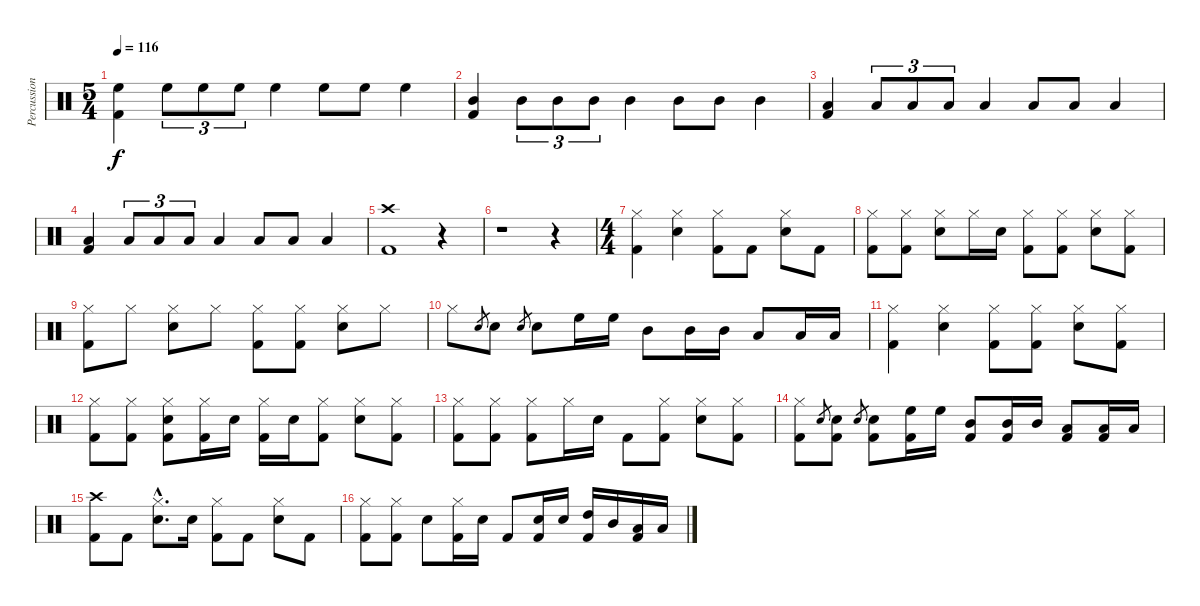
\track ("Percussion" "Percussion") {instrument percussion}
\staff {score}
\articulation defaults
\ts (5 4)
\tempo 116
\clef neutral
\ks c
("Kick (hit) 2" "High Floor Tom (hit)").4{dy f} "High Floor Tom (hit)".8{tu (3 2)} "High Floor Tom (hit)".8{tu (3 2)} "High Floor Tom (hit)".8{tu (3 2)} "High Floor Tom (hit)".4 "High Floor Tom (hit)".8 "High Floor Tom (hit)".8 "High Floor Tom (hit)".4 |
("Kick (hit) 2" "Mid Tom (hit)").4 "Mid Tom (hit)".8{tu (3 2)} "Mid Tom (hit)".8{tu (3 2)} "Mid Tom (hit)".8{tu (3 2)} "Mid Tom (hit)".4 "Mid Tom (hit)".8 "Mid Tom (hit)".8 "Mid Tom (hit)".4 |
("Kick (hit) 2" "Low Tom (hit)").4 "Low Tom (hit)".8{tu (3 2)} "Low Tom (hit)".8{tu (3 2)} "Low Tom (hit)".8{tu (3 2)} "Low Tom (hit)".4 "Low Tom (hit)".8 "Low Tom (hit)".8 "Low Tom (hit)".4 |
("Kick (hit) 2" "Low Floor Tom (hit)").4 "Low Floor Tom (hit)".8{tu (3 2)} "Low Floor Tom (hit)".8{tu (3 2)} "Low Floor Tom (hit)".8{tu (3 2)} "Low Floor Tom (hit)".4 "Low Floor Tom (hit)".8 "Low Floor Tom (hit)".8 "Low Floor Tom (hit)".4 |
("Kick (hit) 2" "Crash high (hit)").1 r.4 |
r.1 r.4 |
\ts (4 4)
("Kick (hit) 2" "Hi-Hat (closed)").4 ("Snare (hit) 2" "Hi-Hat (closed)").4 ("Kick (hit) 2" "Hi-Hat (closed)").8 "Kick (hit) 2".8 ("Snare (hit) 2" "Hi-Hat (closed)").8 "Kick (hit) 2".8 |
("Kick (hit) 2" "Hi-Hat (closed)").8 ("Kick (hit) 2" "Hi-Hat (closed)").8 ("Snare (hit) 2" "Hi-Hat (closed)").8 "Hi-Hat (closed)".16 "Snare (hit) 2".16 ("Kick (hit) 2" "Hi-Hat (closed)").8 ("Kick (hit) 2" "Hi-Hat (closed)").8 ("Snare (hit) 2" "Hi-Hat (closed)").8 ("Kick (hit) 2" "Hi-Hat (closed)").8 |
("Kick (hit) 2" "Hi-Hat (closed)").8 "Hi-Hat (closed)".8 ("Snare (hit) 2" "Hi-Hat (closed)").8 "Hi-Hat (closed)".8 ("Kick (hit) 2" "Hi-Hat (closed)").8 ("Kick (hit) 2" "Hi-Hat (closed)").8 ("Snare (hit) 2" "Hi-Hat (closed)").8 "Hi-Hat (closed)".8 |
"Hi-Hat (closed)".8 "Snare (hit) 2".8{gr} "Snare (hit) 2".8 "Snare (hit) 2".8{gr} "Snare (hit) 2".8 "High Floor Tom (hit)".16 "High Floor Tom (hit)".16 "Mid Tom (hit)".8 "Mid Tom (hit)".16 "Mid Tom (hit)".16 "Low Tom (hit)".8 "Low Tom (hit)".16 "Low Tom (hit)".16 |
("Kick (hit) 2" "Hi-Hat (closed)").4 ("Snare (hit) 2" "Hi-Hat (closed)").4 ("Kick (hit) 2" "Hi-Hat (closed)").8 ("Kick (hit) 2" "Hi-Hat (closed)").8 ("Snare (hit) 2" "Hi-Hat (closed)").8 ("Kick (hit) 2" "Hi-Hat (closed)").8 |
("Kick (hit) 2" "Hi-Hat (closed)").8 ("Kick (hit) 2" "Hi-Hat (closed)").8 ("Kick (hit) 2" "Snare (hit) 2" "Hi-Hat (closed)").8 ("Kick (hit) 2" "Hi-Hat (closed)").16 "Snare (hit) 2".16 ("Kick (hit) 2" "Hi-Hat (closed)").16 "Snare (hit) 2".16 ("Kick (hit) 2" "Hi-Hat (closed)").8 ("Snare (hit) 2" "Hi-Hat (closed)").8 ("Kick (hit) 2" "Hi-Hat (closed)").8 |
("Kick (hit) 2" "Hi-Hat (closed)").8 ("Kick (hit) 2" "Hi-Hat (closed)").8 ("Kick (hit) 2" "Hi-Hat (closed)").8 "Hi-Hat (closed)".16 "Snare (hit) 2".16 "Kick (hit) 2".8 ("Kick (hit) 2" "Hi-Hat (closed)").8 ("Snare (hit) 2" "Hi-Hat (closed)").8 ("Kick (hit) 2" "Hi-Hat (closed)").8 |
("Kick (hit) 2" "Hi-Hat (closed)").8 "Snare (hit) 2".8{gr} ("Kick (hit) 2" "Snare (hit) 2").8 "Snare (hit) 2".8{gr} ("Kick (hit) 2" "Snare (hit) 2").8 ("Kick (hit) 2" "High Floor Tom (hit)").16 "High Floor Tom (hit)".16 ("Kick (hit) 2" "Mid Tom (hit)").8 ("Kick (hit) 2" "Mid Tom (hit)").16 "Mid Tom (hit)".16 ("Kick (hit) 2" "Low Tom (hit)").8 ("Kick (hit) 2" "Low Tom (hit)").16 "Low Tom (hit)".16 |
("Kick (hit) 2" "Crash high (hit)").8 "Kick (hit) 2".8 ("Snare (hit) 2"{hac} "Hi-Hat (closed)"{hac}).8{d} "Snare (hit) 2".16 ("Kick (hit) 2" "Hi-Hat (closed)").8 "Kick (hit) 2".8 ("Snare (hit) 2" "Hi-Hat (closed)").8 "Kick (hit) 2".8 |
("Kick (hit) 2" "Hi-Hat (closed)").8 ("Kick (hit) 2" "Hi-Hat (closed)").8 "Snare (hit) 2".8 ("Kick (hit) 2" "Hi-Hat (closed)").16 "Snare (hit) 2".16 "Kick (hit) 2".8 ("Kick (hit) 2" "Snare (hit) 2").16 "Snare (hit) 2".16 ("Kick (hit) 2" "High Tom (hit)").16 "Mid Tom (hit)".16 ("Kick (hit) 2" "Low Tom (hit)").16 "Low Floor Tom (hit)".16
